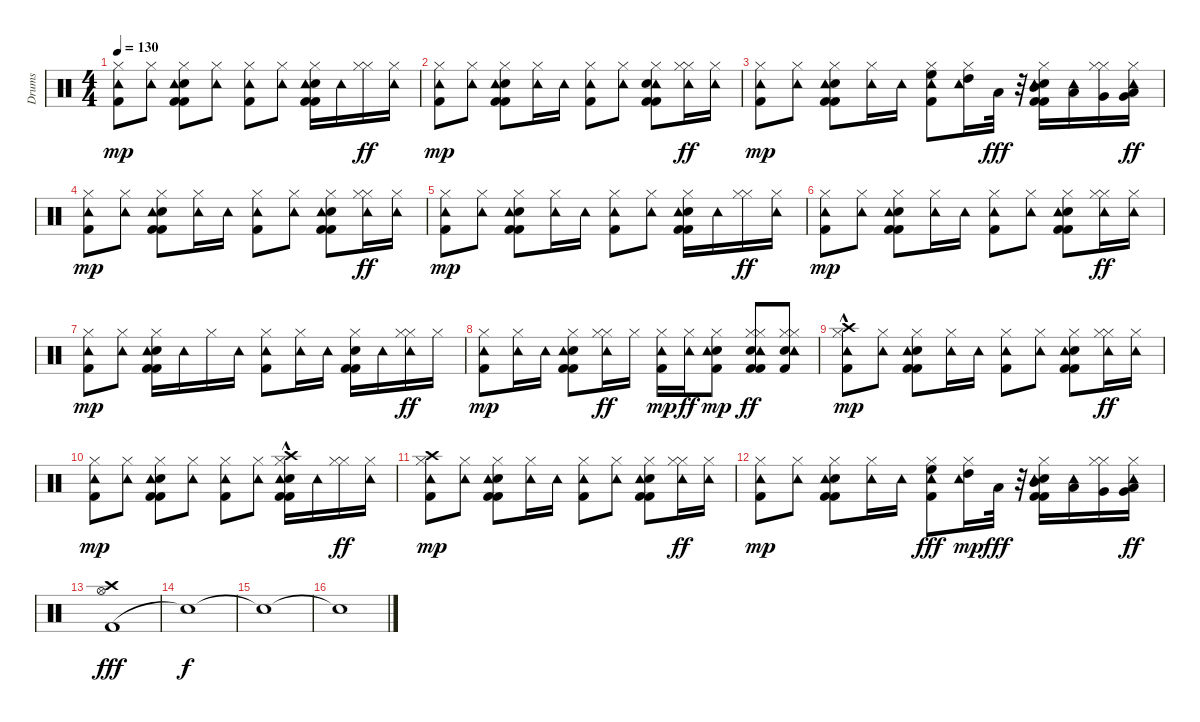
\track ("Drums" "Drums") {instrument percussion}
\staff {score}
\articulation defaults
\ts (4 4)
\tempo 130
\clef neutral
\ks c
("Kick (hit) 2" "Hi-Hat (closed)" "Tambourine (hit)").8{dy mp} ("Hi-Hat (closed)" "Tambourine (hit)").8 ("Kick (hit) 2" "Snare (hit) 2" "Kick (hit) 2" "Hi-Hat (closed)" "Tambourine (hit)").8 ("Hi-Hat (closed)" "Tambourine (hit)").8 ("Kick (hit) 2" "Hi-Hat (closed)" "Tambourine (hit)").8 ("Hi-Hat (closed)" "Tambourine (hit)").8 ("Kick (hit) 2" "Kick (hit) 2" "Snare (hit) 2" "Hi-Hat (closed)" "Tambourine (hit)").16 "Tambourine (hit)".16 ("Hi-Hat (closed)" "Hi-Hat (closed)").16{dy ff} ("Tambourine (hit)" "Hi-Hat (closed)").16 |
("Kick (hit) 2" "Hi-Hat (closed)" "Tambourine (hit)").8{dy mp} ("Hi-Hat (closed)" "Tambourine (hit)").8 ("Kick (hit) 2" "Kick (hit) 2" "Snare (hit) 2" "Hi-Hat (closed)" "Tambourine (hit)").8 ("Hi-Hat (closed)" "Tambourine (hit)").16 "Tambourine (hit)".16 ("Kick (hit) 2" "Hi-Hat (closed)" "Tambourine (hit)").8 ("Hi-Hat (closed)" "Tambourine (hit)").8 ("Tambourine (hit)" "Kick (hit) 2" "Kick (hit) 2" "Snare (hit) 2" "Hi-Hat (closed)").8 ("Hi-Hat (closed)" "Tambourine (hit)" "Hi-Hat (closed)").16{dy ff} ("Tambourine (hit)" "Hi-Hat (closed)").16 |
("Kick (hit) 2" "Hi-Hat (closed)" "Tambourine (hit)").8{dy mp} ("Hi-Hat (closed)" "Tambourine (hit)").8 ("Kick (hit) 2" "Snare (hit) 2" "Kick (hit) 2" "Hi-Hat (closed)" "Tambourine (hit)").8 ("Hi-Hat (closed)" "Tambourine (hit)").16 "Tambourine (hit)".16 ("Kick (hit) 2" "Hi-Hat (closed)" "High Floor Tom (hit)" "Tambourine (hit)").8 ("Hi-Hat (closed)" "High Tom (hit)" "Tambourine (hit)").16 "Low Tom (hit)".32{dy fff} r.32 ("Kick (hit) 2" "Snare (hit) 2" "Kick (hit) 2" "Hi-Hat (closed)" "Tambourine (hit)" "Mid Tom (hit)").16 ("Tambourine (hit)" "Low Tom (hit)").16 ("Hi-Hat (closed)" "Hi-Hat (closed)" "Very Low Tom (hit)").16 ("Very Low Tom (hit)" "Low Floor Tom (hit)" "Tambourine (hit)" "Hi-Hat (closed)").16{dy ff} |
("Kick (hit) 2" "Hi-Hat (closed)" "Tambourine (hit)").8{dy mp} ("Hi-Hat (closed)" "Tambourine (hit)").8 ("Kick (hit) 2" "Snare (hit) 2" "Kick (hit) 2" "Hi-Hat (closed)" "Tambourine (hit)").8 ("Hi-Hat (closed)" "Tambourine (hit)").16 "Tambourine (hit)".16 ("Kick (hit) 2" "Hi-Hat (closed)" "Tambourine (hit)").8 ("Hi-Hat (closed)" "Tambourine (hit)").8 ("Kick (hit) 2" "Snare (hit) 2" "Kick (hit) 2" "Hi-Hat (closed)" "Tambourine (hit)").8 ("Hi-Hat (closed)" "Tambourine (hit)" "Hi-Hat (closed)").16{dy ff} ("Tambourine (hit)" "Hi-Hat (closed)").16 |
("Kick (hit) 2" "Hi-Hat (closed)" "Tambourine (hit)").8{dy mp} ("Hi-Hat (closed)" "Tambourine (hit)").8 ("Kick (hit) 2" "Snare (hit) 2" "Kick (hit) 2" "Hi-Hat (closed)" "Tambourine (hit)").8 ("Hi-Hat (closed)" "Tambourine (hit)").16 "Tambourine (hit)".16 ("Kick (hit) 2" "Hi-Hat (closed)" "Tambourine (hit)").8 ("Hi-Hat (closed)" "Tambourine (hit)").8 ("Kick (hit) 2" "Snare (hit) 2" "Kick (hit) 2" "Hi-Hat (closed)" "Tambourine (hit)").16 "Tambourine (hit)".16 ("Hi-Hat (closed)" "Hi-Hat (closed)").16{dy ff} ("Tambourine (hit)" "Hi-Hat (closed)").16 |
("Kick (hit) 2" "Hi-Hat (closed)" "Tambourine (hit)").8{dy mp} ("Hi-Hat (closed)" "Tambourine (hit)").8 ("Kick (hit) 2" "Snare (hit) 2" "Kick (hit) 2" "Hi-Hat (closed)" "Tambourine (hit)").8 ("Hi-Hat (closed)" "Tambourine (hit)").16 "Tambourine (hit)".16 ("Kick (hit) 2" "Hi-Hat (closed)" "Tambourine (hit)").8 ("Hi-Hat (closed)" "Tambourine (hit)").8 ("Kick (hit) 2" "Snare (hit) 2" "Kick (hit) 2" "Hi-Hat (closed)" "Tambourine (hit)").8 ("Hi-Hat (closed)" "Tambourine (hit)" "Hi-Hat (closed)").16{dy ff} ("Tambourine (hit)" "Hi-Hat (closed)").16 |
("Kick (hit) 2" "Hi-Hat (closed)" "Tambourine (hit)").8{dy mp} ("Hi-Hat (closed)" "Tambourine (hit)").8 ("Kick (hit) 2" "Kick (hit) 2" "Snare (hit) 2" "Hi-Hat (closed)" "Tambourine (hit)").16 "Tambourine (hit)".16 "Hi-Hat (closed)".16 "Tambourine (hit)".16 ("Kick (hit) 2" "Hi-Hat (closed)" "Tambourine (hit)").8 ("Hi-Hat (closed)" "Tambourine (hit)").16 "Tambourine (hit)".16 ("Kick (hit) 2" "Snare (hit) 2" "Kick (hit) 2" "Hi-Hat (closed)").16 "Tambourine (hit)".16 ("Hi-Hat (closed)" "Tambourine (hit)" "Hi-Hat (closed)").16{dy ff} "Hi-Hat (closed)".16 |
("Kick (hit) 2" "Hi-Hat (closed)" "Tambourine (hit)").8{dy mp} ("Hi-Hat (closed)" "Tambourine (hit)").16 "Tambourine (hit)".16 ("Kick (hit) 2" "Snare (hit) 2" "Kick (hit) 2" "Hi-Hat (closed)" "Tambourine (hit)").8 ("Hi-Hat (closed)" "Tambourine (hit)" "Hi-Hat (closed)").16{dy ff} "Hi-Hat (closed)".16 ("Kick (hit) 2" "Hi-Hat (closed)" "Tambourine (hit)").16{dy mp} ("Tambourine (hit)" "Hi-Hat (closed)").16{dy ff} ("Snare (hit) 2" "Kick (hit) 2" "Hi-Hat (closed)" "Tambourine (hit)").8{dy mp} ("Kick (hit) 2" "Kick (hit) 2" "Snare (hit) 2" "Hi-Hat (closed)" "Tambourine (hit)" "Hi-Hat (closed)").8{dy ff} ("Kick (hit) 2" "Snare (hit) 2" "Hi-Hat (closed)" "Tambourine (hit)" "Hi-Hat (closed)").8 |
("Kick (hit) 2" "Hi-Hat (closed)" "Crash high (hit)"{hac} "Tambourine (hit)").8{dy mp} ("Hi-Hat (closed)" "Tambourine (hit)").8 ("Kick (hit) 2" "Kick (hit) 2" "Snare (hit) 2" "Hi-Hat (closed)" "Tambourine (hit)").8 ("Hi-Hat (closed)" "Tambourine (hit)").16 "Tambourine (hit)".16 ("Kick (hit) 2" "Hi-Hat (closed)" "Tambourine (hit)").8 ("Hi-Hat (closed)" "Tambourine (hit)").8 ("Kick (hit) 2" "Snare (hit) 2" "Kick (hit) 2" "Hi-Hat (closed)" "Tambourine (hit)").8 ("Hi-Hat (closed)" "Tambourine (hit)" "Hi-Hat (closed)").16{dy ff} ("Tambourine (hit)" "Hi-Hat (closed)").16 |
("Kick (hit) 2" "Hi-Hat (closed)" "Tambourine (hit)").8{dy mp} ("Hi-Hat (closed)" "Tambourine (hit)").8 ("Kick (hit) 2" "Snare (hit) 2" "Kick (hit) 2" "Hi-Hat (closed)" "Tambourine (hit)").8 ("Hi-Hat (closed)" "Tambourine (hit)").8 ("Kick (hit) 2" "Hi-Hat (closed)" "Tambourine (hit)").8 ("Hi-Hat (closed)" "Tambourine (hit)").8 ("Kick (hit) 2" "Kick (hit) 2" "Snare (hit) 2" "Hi-Hat (closed)" "Crash high (hit)"{hac} "Tambourine (hit)").16 "Tambourine (hit)".16 ("Hi-Hat (closed)" "Hi-Hat (closed)").16{dy ff} ("Tambourine (hit)" "Hi-Hat (closed)").16 |
("Kick (hit) 2" "Hi-Hat (closed)" "Crash high (hit)" "Tambourine (hit)").8{dy mp} ("Hi-Hat (closed)" "Tambourine (hit)").8 ("Kick (hit) 2" "Kick (hit) 2" "Snare (hit) 2" "Hi-Hat (closed)" "Tambourine (hit)").8 ("Hi-Hat (closed)" "Tambourine (hit)").16 "Tambourine (hit)".16 ("Kick (hit) 2" "Hi-Hat (closed)" "Tambourine (hit)").8 ("Hi-Hat (closed)" "Tambourine (hit)").8 ("Kick (hit) 2" "Kick (hit) 2" "Snare (hit) 2" "Hi-Hat (closed)" "Tambourine (hit)").8 ("Hi-Hat (closed)" "Tambourine (hit)" "Hi-Hat (closed)").16{dy ff} ("Tambourine (hit)" "Hi-Hat (closed)").16 |
("Kick (hit) 2" "Hi-Hat (closed)" "Tambourine (hit)").8{dy mp} ("Hi-Hat (closed)" "Tambourine (hit)").8 ("Kick (hit) 2" "Snare (hit) 2" "Kick (hit) 2" "Hi-Hat (closed)" "Tambourine (hit)").8 ("Hi-Hat (closed)" "Tambourine (hit)").16 "Tambourine (hit)".16 ("Kick (hit) 2" "Hi-Hat (closed)" "Tambourine (hit)" "High Floor Tom (hit)").8{dy fff} ("Hi-Hat (closed)" "High Tom (hit)" "Tambourine (hit)").16{dy mp} "Low Tom (hit)".32{dy fff} r.32 ("Kick (hit) 2" "Snare (hit) 2" "Kick (hit) 2" "Hi-Hat (closed)" "Tambourine (hit)" "Mid Tom (hit)").16 ("Tambourine (hit)" "Low Tom (hit)").16 ("Hi-Hat (closed)" "Hi-Hat (closed)" "Very Low Tom (hit)").16 ("Very Low Tom (hit)" "Low Floor Tom (hit)" "Tambourine (hit)" "Hi-Hat (closed)").16{dy ff} |
("Kick (hit) 2" "Hi-Hat (open)" "Crash high (hit)").1{dy fff} |
"Snare (hit)"{t}.1{dy f} |
"Snare (hit)"{t}.1 |
"Snare (hit)"{t}.1
